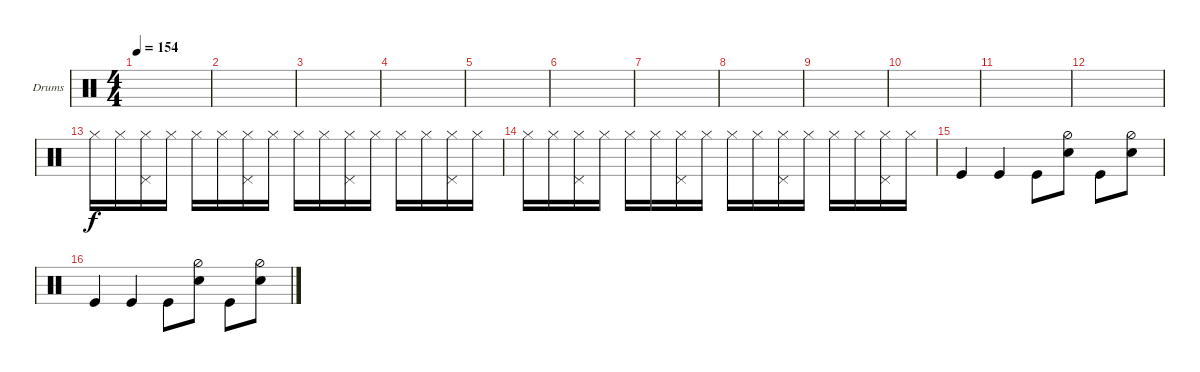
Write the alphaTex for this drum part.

\bracketExtendMode groupsimilarinstruments
\firstSystemTrackNameOrientation horizontal
\otherSystemsTrackNameOrientation horizontal
\track ("Drums" "Drums") {instrument percussion}
\staff {score}
\articulation defaults
\ts (4 4)
\tempo 154
\clef neutral
\ks c
|
|
|
|
|
|
|
|
|
|
|
|
"Hi-Hat (closed)".16 "Hi-Hat (closed)".16 ("Hi-Hat (closed)" "Pedal Hi-Hat (hit)").16 "Hi-Hat (closed)".16 "Hi-Hat (closed)".16 "Hi-Hat (closed)".16 ("Hi-Hat (closed)" "Pedal Hi-Hat (hit)").16 "Hi-Hat (closed)".16 "Hi-Hat (closed)".16 "Hi-Hat (closed)".16 ("Hi-Hat (closed)" "Pedal Hi-Hat (hit)").16 "Hi-Hat (closed)".16 "Hi-Hat (closed)".16 "Hi-Hat (closed)".16 ("Hi-Hat (closed)" "Pedal Hi-Hat (hit)").16 "Hi-Hat (closed)".16 |
"Hi-Hat (closed)".16 "Hi-Hat (closed)".16 ("Hi-Hat (closed)" "Pedal Hi-Hat (hit)").16 "Hi-Hat (closed)".16 "Hi-Hat (closed)".16 "Hi-Hat (closed)".16 ("Hi-Hat (closed)" "Pedal Hi-Hat (hit)").16 "Hi-Hat (closed)".16 "Hi-Hat (closed)".16 "Hi-Hat (closed)".16 ("Hi-Hat (closed)" "Pedal Hi-Hat (hit)").16 "Hi-Hat (closed)".16 "Hi-Hat (closed)".16 "Hi-Hat (closed)".16 ("Hi-Hat (closed)" "Pedal Hi-Hat (hit)").16 "Hi-Hat (closed)".16 |
"Kick (hit)".4 "Kick (hit)".4 "Kick (hit)".8 ("Snare (hit) 2" "Hi-Hat (half)").8 "Kick (hit)".8 ("Snare (hit) 2" "Hi-Hat (half)").8 |
"Kick (hit)".4 "Kick (hit)".4 "Kick (hit)".8 ("Snare (hit) 2" "Hi-Hat (half)").8 "Kick (hit)".8 ("Snare (hit) 2" "Hi-Hat (half)").8
